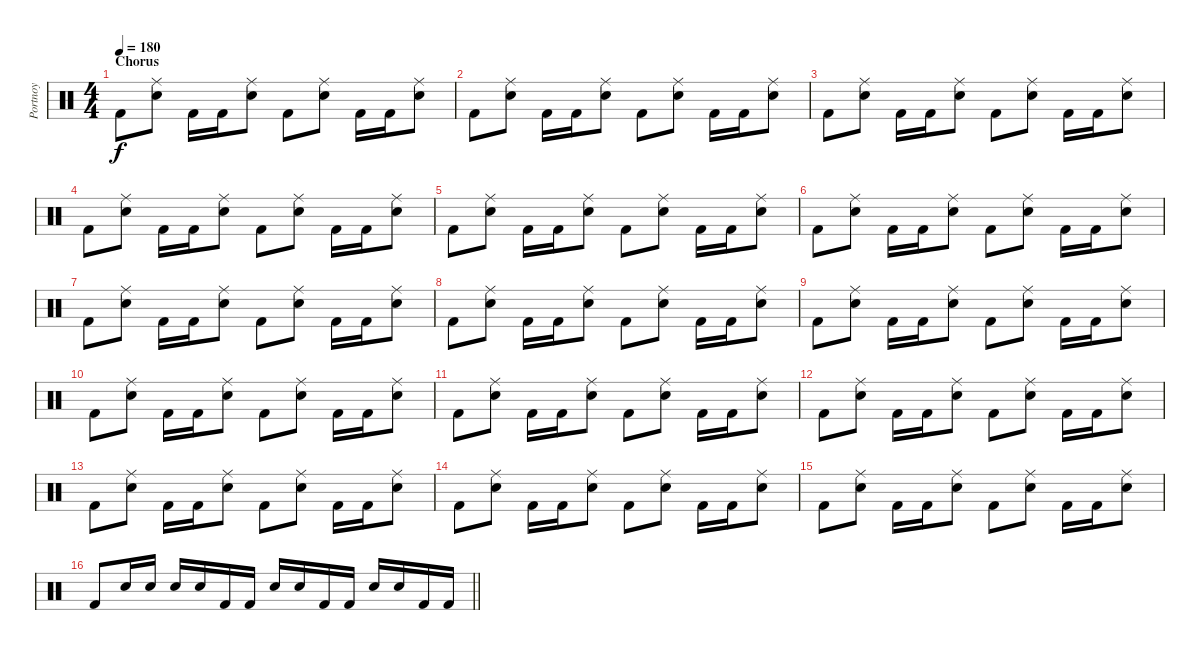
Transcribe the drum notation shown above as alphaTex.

\track ("Portnoy" "Portnoy") {instrument percussion}
\staff {score}
\articulation defaults
\ts (4 4)
\section ("" "Chorus")
\tempo 180
\clef neutral
\ks c "Kick (hit) 2".8{dy f}
("Ride (middle)" "Electric Snare (hit)").8 "Kick (hit) 2".16 "Kick (hit) 2".16 ("Ride (middle)" "Electric Snare (hit)").8 "Kick (hit) 2".8 ("Ride (middle)" "Electric Snare (hit)").8 "Kick (hit) 2".16 "Kick (hit) 2".16 ("Ride (middle)" "Electric Snare (hit)").8 |
"Kick (hit) 2".8 ("Ride (middle)" "Electric Snare (hit)").8 "Kick (hit) 2".16 "Kick (hit) 2".16 ("Ride (middle)" "Electric Snare (hit)").8 "Kick (hit) 2".8 ("Ride (middle)" "Electric Snare (hit)").8 "Kick (hit) 2".16 "Kick (hit) 2".16 ("Ride (middle)" "Electric Snare (hit)").8 |
"Kick (hit) 2".8 ("Ride (middle)" "Electric Snare (hit)").8 "Kick (hit) 2".16 "Kick (hit) 2".16 ("Ride (middle)" "Electric Snare (hit)").8 "Kick (hit) 2".8 ("Ride (middle)" "Electric Snare (hit)").8 "Kick (hit) 2".16 "Kick (hit) 2".16 ("Ride (middle)" "Electric Snare (hit)").8 |
"Kick (hit) 2".8 ("Ride (middle)" "Electric Snare (hit)").8 "Kick (hit) 2".16 "Kick (hit) 2".16 ("Ride (middle)" "Electric Snare (hit)").8 "Kick (hit) 2".8 ("Ride (middle)" "Electric Snare (hit)").8 "Kick (hit) 2".16 "Kick (hit) 2".16 ("Ride (middle)" "Electric Snare (hit)").8 |
"Kick (hit) 2".8 ("Ride (middle)" "Electric Snare (hit)").8 "Kick (hit) 2".16 "Kick (hit) 2".16 ("Ride (middle)" "Electric Snare (hit)").8 "Kick (hit) 2".8 ("Ride (middle)" "Electric Snare (hit)").8 "Kick (hit) 2".16 "Kick (hit) 2".16 ("Ride (middle)" "Electric Snare (hit)").8 |
"Kick (hit) 2".8 ("Ride (middle)" "Electric Snare (hit)").8 "Kick (hit) 2".16 "Kick (hit) 2".16 ("Ride (middle)" "Electric Snare (hit)").8 "Kick (hit) 2".8 ("Ride (middle)" "Electric Snare (hit)").8 "Kick (hit) 2".16 "Kick (hit) 2".16 ("Ride (middle)" "Electric Snare (hit)").8 |
"Kick (hit) 2".8 ("Ride (middle)" "Electric Snare (hit)").8 "Kick (hit) 2".16 "Kick (hit) 2".16 ("Ride (middle)" "Electric Snare (hit)").8 "Kick (hit) 2".8 ("Ride (middle)" "Electric Snare (hit)").8 "Kick (hit) 2".16 "Kick (hit) 2".16 ("Ride (middle)" "Electric Snare (hit)").8 |
"Kick (hit) 2".8 ("Ride (middle)" "Electric Snare (hit)").8 "Kick (hit) 2".16 "Kick (hit) 2".16 ("Ride (middle)" "Electric Snare (hit)").8 "Kick (hit) 2".8 ("Ride (middle)" "Electric Snare (hit)").8 "Kick (hit) 2".16 "Kick (hit) 2".16 ("Ride (middle)" "Electric Snare (hit)").8 |
"Kick (hit) 2".8 ("Ride (middle)" "Electric Snare (hit)").8 "Kick (hit) 2".16 "Kick (hit) 2".16 ("Ride (middle)" "Electric Snare (hit)").8 "Kick (hit) 2".8 ("Ride (middle)" "Electric Snare (hit)").8 "Kick (hit) 2".16 "Kick (hit) 2".16 ("Ride (middle)" "Electric Snare (hit)").8 |
"Kick (hit) 2".8 ("Ride (middle)" "Electric Snare (hit)").8 "Kick (hit) 2".16 "Kick (hit) 2".16 ("Ride (middle)" "Electric Snare (hit)").8 "Kick (hit) 2".8 ("Ride (middle)" "Electric Snare (hit)").8 "Kick (hit) 2".16 "Kick (hit) 2".16 ("Ride (middle)" "Electric Snare (hit)").8 |
"Kick (hit) 2".8 ("Ride (middle)" "Electric Snare (hit)").8 "Kick (hit) 2".16 "Kick (hit) 2".16 ("Ride (middle)" "Electric Snare (hit)").8 "Kick (hit) 2".8 ("Ride (middle)" "Electric Snare (hit)").8 "Kick (hit) 2".16 "Kick (hit) 2".16 ("Ride (middle)" "Electric Snare (hit)").8 |
"Kick (hit) 2".8 ("Ride (middle)" "Electric Snare (hit)").8 "Kick (hit) 2".16 "Kick (hit) 2".16 ("Ride (middle)" "Electric Snare (hit)").8 "Kick (hit) 2".8 ("Ride (middle)" "Electric Snare (hit)").8 "Kick (hit) 2".16 "Kick (hit) 2".16 ("Ride (middle)" "Electric Snare (hit)").8 |
"Kick (hit) 2".8 ("Ride (middle)" "Electric Snare (hit)").8 "Kick (hit) 2".16 "Kick (hit) 2".16 ("Ride (middle)" "Electric Snare (hit)").8 "Kick (hit) 2".8 ("Ride (middle)" "Electric Snare (hit)").8 "Kick (hit) 2".16 "Kick (hit) 2".16 ("Ride (middle)" "Electric Snare (hit)").8 |
"Kick (hit) 2".8 ("Ride (middle)" "Electric Snare (hit)").8 "Kick (hit) 2".16 "Kick (hit) 2".16 ("Ride (middle)" "Electric Snare (hit)").8 "Kick (hit) 2".8 ("Ride (middle)" "Electric Snare (hit)").8 "Kick (hit) 2".16 "Kick (hit) 2".16 ("Ride (middle)" "Electric Snare (hit)").8 |
"Kick (hit) 2".8 ("Ride (middle)" "Electric Snare (hit)").8 "Kick (hit) 2".16 "Kick (hit) 2".16 ("Ride (middle)" "Electric Snare (hit)").8 "Kick (hit) 2".8 ("Ride (middle)" "Electric Snare (hit)").8 "Kick (hit) 2".16 "Kick (hit) 2".16 ("Ride (middle)" "Electric Snare (hit)").8 |
\barLineRight lightlight "Kick (hit) 2".8 "Electric Snare (hit)".16 "Electric Snare (hit)".16 "Electric Snare (hit)".16 "Electric Snare (hit)".16 "Kick (hit) 2".16 "Kick (hit) 2".16 "Electric Snare (hit)".16 "Electric Snare (hit)".16 "Kick (hit) 2".16 "Kick (hit) 2".16 "Electric Snare (hit)".16 "Electric Snare (hit)".16 "Kick (hit) 2".16 "Kick (hit) 2".16
